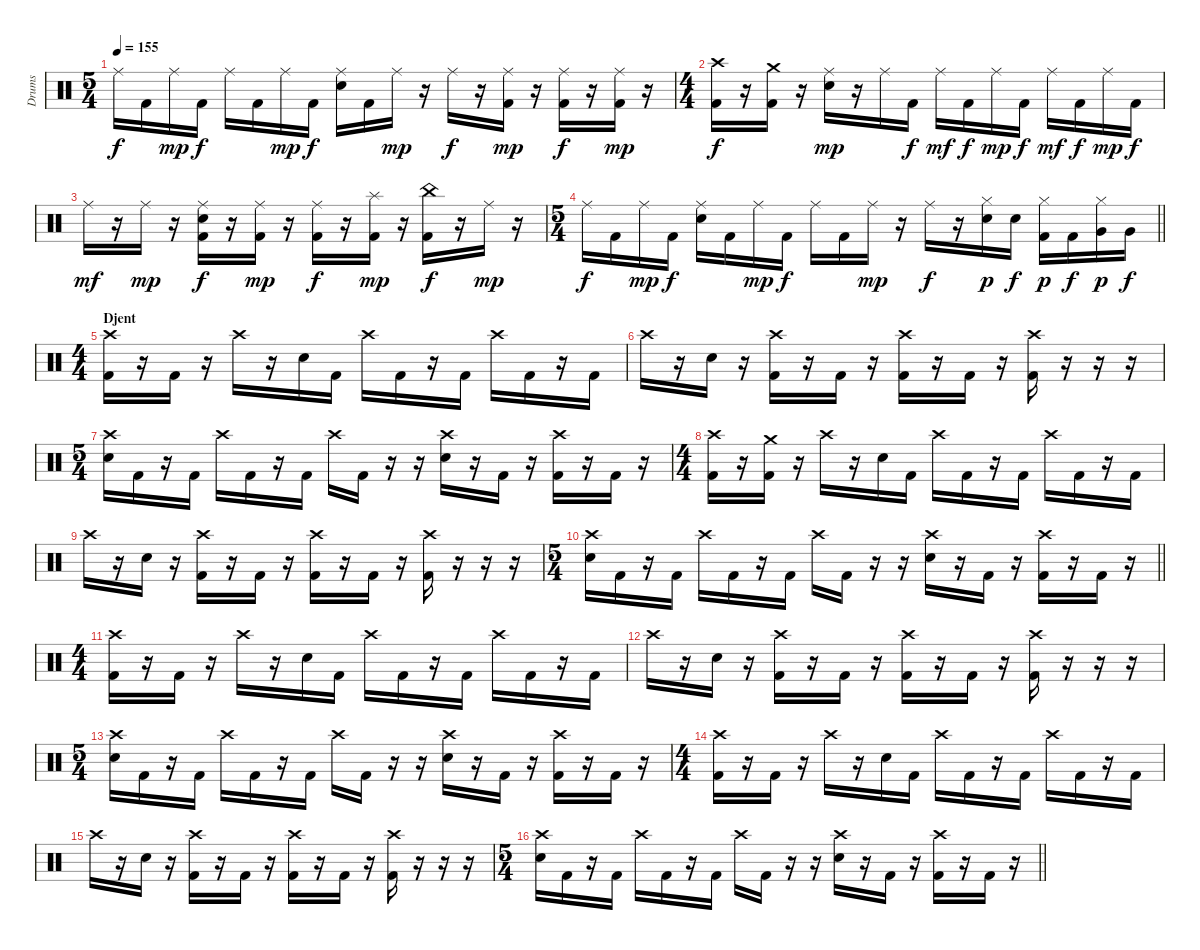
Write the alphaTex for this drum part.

\track ("Drums" "Drums") {instrument percussion}
\staff {score}
\articulation defaults
\ts (5 4)
\tempo 155
\clef neutral
\ks c "Ride (middle)".16{dy f} "Kick (hit) 2".16 "Ride (middle)".16{dy mp} "Kick (hit) 2".16{dy f} "Ride (middle)".16 "Kick (hit) 2".16 "Ride (middle)".16{dy mp} "Kick (hit) 2".16{dy f}
("Ride (middle)" "Electric Snare (hit)").16 "Kick (hit) 2".16 "Ride (middle)".16{dy mp} r.16 "Ride (middle)".16{dy f} r.16 ("Ride (middle)" "Kick (hit) 2").16{dy mp} r.16 ("Ride (middle)" "Kick (hit) 2").16{dy f} r.16 ("Ride (middle)" "Kick (hit) 2").16{dy mp} r.16 |
\ts (4 4)
("Crash high (hit)" "Kick (hit) 2").16{dy f} r.16 ("Crash medium (hit)" "Kick (hit) 2").16 r.16 ("Ride (middle)" "Electric Snare (hit)").16{dy mp} r.16 "Ride (middle)".16 "Kick (hit) 2".16{dy f} "Ride (middle)".16{dy mf} "Kick (hit) 2".16{dy f} "Ride (middle)".16{dy mp} "Kick (hit) 2".16{dy f} "Ride (middle)".16{dy mf} "Kick (hit) 2".16{dy f} "Ride (middle)".16{dy mp} "Kick (hit) 2".16{dy f} |
"Ride (middle)".16{dy mf} r.16 "Ride (middle)".16{dy mp} r.16 ("Ride (middle)" "Electric Snare (hit)" "Kick (hit) 2").16{dy f} r.16 ("Ride (middle)" "Kick (hit) 2").16{dy mp} r.16 ("Ride (middle)" "Kick (hit) 2").16{dy f} r.16 ("Splash (hit)" "Kick (hit) 2").16{dy mp} r.16 ("China (hit)" "Kick (hit) 2").16{dy f} r.16 "Ride (middle)".16{dy mp} r.16 |
\ts (5 4)
\barLineRight lightlight "Ride (middle)".16{dy f} "Kick (hit) 2".16 "Ride (middle)".16{dy mp} "Kick (hit) 2".16{dy f}
("Ride (middle)" "Electric Snare (hit)").16 "Kick (hit) 2".16 "Ride (middle)".16{dy mp} "Kick (hit) 2".16{dy f} "Ride (middle)".16 "Kick (hit) 2".16 "Ride (middle)".16{dy mp} r.16 "Ride (middle)".16{dy f} r.16 ("Hi-Hat (closed)" "Electric Snare (hit)").16{dy p} "Electric Snare (hit)".16{dy f} ("Hi-Hat (closed)" "Kick (hit) 2").16{dy p} "Kick (hit) 2".16{dy f} ("Hi-Hat (closed)" "Very Low Tom (hit)").16{dy p} "Very Low Tom (hit)".16{dy f} |
\ts (4 4)
\section ("" "Djent")
("Crash high (hit)" "Kick (hit) 2").16 r.16 "Kick (hit) 2".16 r.16 "Crash high (hit)".16 r.16 "Electric Snare (hit)".16 "Kick (hit) 2".16 "Crash high (hit)".16 "Kick (hit) 2".16 r.16 "Kick (hit) 2".16 "Crash high (hit)".16 "Kick (hit) 2".16 r.16 "Kick (hit) 2".16 |
"Crash high (hit)".16 r.16 "Electric Snare (hit)".16 r.16 ("Crash high (hit)" "Kick (hit) 2").16 r.16 "Kick (hit) 2".16 r.16 ("Crash high (hit)" "Kick (hit) 2").16 r.16 "Kick (hit) 2".16 r.16 ("Crash high (hit)" "Kick (hit) 2").16 r.16 r.16 r.16 |
\ts (5 4)
("Crash high (hit)" "Electric Snare (hit)").16 "Kick (hit) 2".16 r.16 "Kick (hit) 2".16 "Crash high (hit)".16 "Kick (hit) 2".16 r.16 "Kick (hit) 2".16 "Crash high (hit)".16 "Kick (hit) 2".16 r.16 r.16 ("Crash high (hit)" "Electric Snare (hit)").16 r.16 "Kick (hit) 2".16 r.16 ("Crash high (hit)" "Kick (hit) 2").16 r.16 "Kick (hit) 2".16 r.16 |
\ts (4 4)
("Crash high (hit)" "Kick (hit) 2").16 r.16 ("Crash medium (hit)" "Kick (hit) 2").16 r.16 "Crash high (hit)".16 r.16 "Electric Snare (hit)".16 "Kick (hit) 2".16 "Crash high (hit)".16 "Kick (hit) 2".16 r.16 "Kick (hit) 2".16 "Crash high (hit)".16 "Kick (hit) 2".16 r.16 "Kick (hit) 2".16 |
"Crash high (hit)".16 r.16 "Electric Snare (hit)".16 r.16 ("Crash high (hit)" "Kick (hit) 2").16 r.16 "Kick (hit) 2".16 r.16 ("Crash high (hit)" "Kick (hit) 2").16 r.16 "Kick (hit) 2".16 r.16 ("Crash high (hit)" "Kick (hit) 2").16 r.16 r.16 r.16 |
\ts (5 4)
\barLineRight lightlight
("Crash high (hit)" "Electric Snare (hit)").16 "Kick (hit) 2".16 r.16 "Kick (hit) 2".16 "Crash high (hit)".16 "Kick (hit) 2".16 r.16 "Kick (hit) 2".16 "Crash high (hit)".16 "Kick (hit) 2".16 r.16 r.16 ("Crash high (hit)" "Electric Snare (hit)").16 r.16 "Kick (hit) 2".16 r.16 ("Crash high (hit)" "Kick (hit) 2").16 r.16 "Kick (hit) 2".16 r.16 |
\ts (4 4)
("Crash high (hit)" "Kick (hit) 2").16 r.16 "Kick (hit) 2".16 r.16 "Crash high (hit)".16 r.16 "Electric Snare (hit)".16 "Kick (hit) 2".16 "Crash high (hit)".16 "Kick (hit) 2".16 r.16 "Kick (hit) 2".16 "Crash high (hit)".16 "Kick (hit) 2".16 r.16 "Kick (hit) 2".16 |
"Crash high (hit)".16 r.16 "Electric Snare (hit)".16 r.16 ("Crash high (hit)" "Kick (hit) 2").16 r.16 "Kick (hit) 2".16 r.16 ("Crash high (hit)" "Kick (hit) 2").16 r.16 "Kick (hit) 2".16 r.16 ("Crash high (hit)" "Kick (hit) 2").16 r.16 r.16 r.16 |
\ts (5 4)
("Crash high (hit)" "Electric Snare (hit)").16 "Kick (hit) 2".16 r.16 "Kick (hit) 2".16 "Crash high (hit)".16 "Kick (hit) 2".16 r.16 "Kick (hit) 2".16 "Crash high (hit)".16 "Kick (hit) 2".16 r.16 r.16 ("Crash high (hit)" "Electric Snare (hit)").16 r.16 "Kick (hit) 2".16 r.16 ("Crash high (hit)" "Kick (hit) 2").16 r.16 "Kick (hit) 2".16 r.16 |
\ts (4 4)
("Crash high (hit)" "Kick (hit) 2").16 r.16 "Kick (hit) 2".16 r.16 "Crash high (hit)".16 r.16 "Electric Snare (hit)".16 "Kick (hit) 2".16 "Crash high (hit)".16 "Kick (hit) 2".16 r.16 "Kick (hit) 2".16 "Crash high (hit)".16 "Kick (hit) 2".16 r.16 "Kick (hit) 2".16 |
"Crash high (hit)".16 r.16 "Electric Snare (hit)".16 r.16 ("Crash high (hit)" "Kick (hit) 2").16 r.16 "Kick (hit) 2".16 r.16 ("Crash high (hit)" "Kick (hit) 2").16 r.16 "Kick (hit) 2".16 r.16 ("Crash high (hit)" "Kick (hit) 2").16 r.16 r.16 r.16 |
\ts (5 4)
\barLineRight lightlight
("Crash high (hit)" "Electric Snare (hit)").16 "Kick (hit) 2".16 r.16 "Kick (hit) 2".16 "Crash high (hit)".16 "Kick (hit) 2".16 r.16 "Kick (hit) 2".16 "Crash high (hit)".16 "Kick (hit) 2".16 r.16 r.16 ("Crash high (hit)" "Electric Snare (hit)").16 r.16 "Kick (hit) 2".16 r.16 ("Crash high (hit)" "Kick (hit) 2").16 r.16 "Kick (hit) 2".16 r.16
